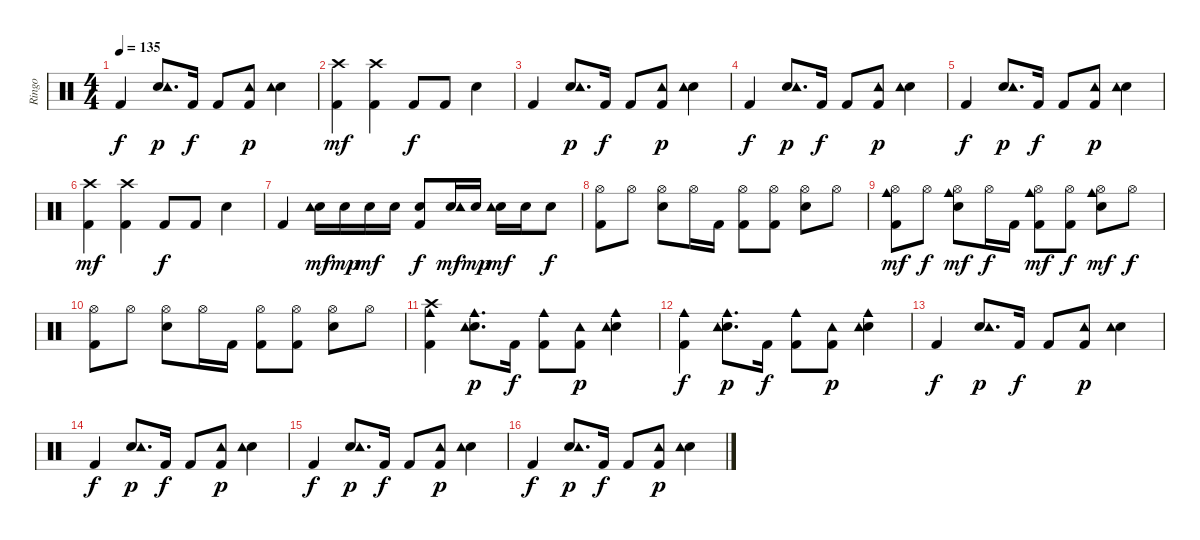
\track ("Ringo" "Ringo") {instrument percussion}
\staff {score}
\articulation defaults
\ts (4 4)
\tempo 135
\clef neutral
\ks c "Kick (hit) 2".4{dy f}
("Electric Snare (hit)" "Tambourine (hit)").8{d dy p} "Kick (hit) 2".16{dy f} "Kick (hit) 2".8 ("Kick (hit) 2" "Tambourine (hit)").8{dy p} ("Electric Snare (hit)" "Tambourine (hit)").4 |
("Crash high (hit)" "Kick (hit) 2").4{dy mf} ("Crash high (hit)" "Kick (hit) 2").4 "Kick (hit) 2".8{dy f} "Kick (hit) 2".8 "Electric Snare (hit)".4 |
"Kick (hit) 2".4 ("Electric Snare (hit)" "Tambourine (hit)").8{d dy p} "Kick (hit) 2".16{dy f} "Kick (hit) 2".8 ("Kick (hit) 2" "Tambourine (hit)").8{dy p} ("Electric Snare (hit)" "Tambourine (hit)").4 |
"Kick (hit) 2".4{dy f} ("Electric Snare (hit)" "Tambourine (hit)").8{d dy p} "Kick (hit) 2".16{dy f} "Kick (hit) 2".8 ("Kick (hit) 2" "Tambourine (hit)").8{dy p} ("Electric Snare (hit)" "Tambourine (hit)").4 |
"Kick (hit) 2".4{dy f} ("Electric Snare (hit)" "Tambourine (hit)").8{d dy p} "Kick (hit) 2".16{dy f} "Kick (hit) 2".8 ("Kick (hit) 2" "Tambourine (hit)").8{dy p} ("Electric Snare (hit)" "Tambourine (hit)").4 |
("Crash high (hit)" "Kick (hit) 2").4{dy mf} ("Crash high (hit)" "Kick (hit) 2").4 "Kick (hit) 2".8{dy f} "Kick (hit) 2".8 "Electric Snare (hit)".4 |
"Kick (hit) 2".4 ("Electric Snare (hit)" "Tambourine (hit)").16{dy mf} "Electric Snare (hit)".16{dy mp} "Electric Snare (hit)".16{dy mf} "Electric Snare (hit)".16 ("Electric Snare (hit)" "Kick (hit) 2").8{dy f} ("Electric Snare (hit)" "Tambourine (hit)").16{dy mf} "Electric Snare (hit)".16{dy mp} ("Electric Snare (hit)" "Tambourine (hit)").16{dy mf} "Electric Snare (hit)".16 "Electric Snare (hit)".8{dy f} |
("Hi-Hat (open)" "Kick (hit) 2").8 "Hi-Hat (open)".8 ("Hi-Hat (open)" "Electric Snare (hit)").8 "Hi-Hat (open)".16 "Kick (hit) 2".16 ("Hi-Hat (open)" "Kick (hit) 2").8 ("Hi-Hat (open)" "Kick (hit) 2").8 ("Hi-Hat (open)" "Electric Snare (hit)").8 "Hi-Hat (open)".8 |
("Hi-Hat (open)" "Kick (hit) 2" "Cowbell medium (hit)").8{dy mf} "Hi-Hat (open)".8{dy f} ("Hi-Hat (open)" "Electric Snare (hit)" "Cowbell medium (hit)").8{dy mf} "Hi-Hat (open)".16{dy f} "Kick (hit) 2".16 ("Hi-Hat (open)" "Kick (hit) 2" "Cowbell medium (hit)").8{dy mf} ("Hi-Hat (open)" "Kick (hit) 2").8{dy f} ("Hi-Hat (open)" "Electric Snare (hit)" "Cowbell medium (hit)").8{dy mf} "Hi-Hat (open)".8{dy f} |
("Hi-Hat (open)" "Kick (hit) 2").8 "Hi-Hat (open)".8 ("Hi-Hat (open)" "Electric Snare (hit)").8 "Hi-Hat (open)".16 "Kick (hit) 2".16 ("Hi-Hat (open)" "Kick (hit) 2").8 ("Hi-Hat (open)" "Kick (hit) 2").8 ("Hi-Hat (open)" "Electric Snare (hit)").8 "Hi-Hat (open)".8 |
("Kick (hit) 2" "Crash high (hit)" "Cowbell medium (hit)").4 ("Electric Snare (hit)" "Tambourine (hit)" "Cowbell medium (hit)").8{d dy p} "Kick (hit) 2".16{dy f} ("Kick (hit) 2" "Cowbell medium (hit)").8 ("Kick (hit) 2" "Tambourine (hit)").8{dy p} ("Electric Snare (hit)" "Tambourine (hit)" "Cowbell medium (hit)").4 |
("Kick (hit) 2" "Cowbell medium (hit)").4{dy f} ("Electric Snare (hit)" "Tambourine (hit)" "Cowbell medium (hit)").8{d dy p} "Kick (hit) 2".16{dy f} ("Kick (hit) 2" "Cowbell medium (hit)").8 ("Kick (hit) 2" "Tambourine (hit)").8{dy p} ("Electric Snare (hit)" "Tambourine (hit)" "Cowbell medium (hit)").4 |
"Kick (hit) 2".4{dy f} ("Electric Snare (hit)" "Tambourine (hit)").8{d dy p} "Kick (hit) 2".16{dy f} "Kick (hit) 2".8 ("Kick (hit) 2" "Tambourine (hit)").8{dy p} ("Electric Snare (hit)" "Tambourine (hit)").4 |
"Kick (hit) 2".4{dy f} ("Electric Snare (hit)" "Tambourine (hit)").8{d dy p} "Kick (hit) 2".16{dy f} "Kick (hit) 2".8 ("Kick (hit) 2" "Tambourine (hit)").8{dy p} ("Electric Snare (hit)" "Tambourine (hit)").4 |
"Kick (hit) 2".4{dy f} ("Electric Snare (hit)" "Tambourine (hit)").8{d dy p} "Kick (hit) 2".16{dy f} "Kick (hit) 2".8 ("Kick (hit) 2" "Tambourine (hit)").8{dy p} ("Electric Snare (hit)" "Tambourine (hit)").4 |
"Kick (hit) 2".4{dy f} ("Electric Snare (hit)" "Tambourine (hit)").8{d dy p} "Kick (hit) 2".16{dy f} "Kick (hit) 2".8 ("Kick (hit) 2" "Tambourine (hit)").8{dy p} ("Electric Snare (hit)" "Tambourine (hit)").4
